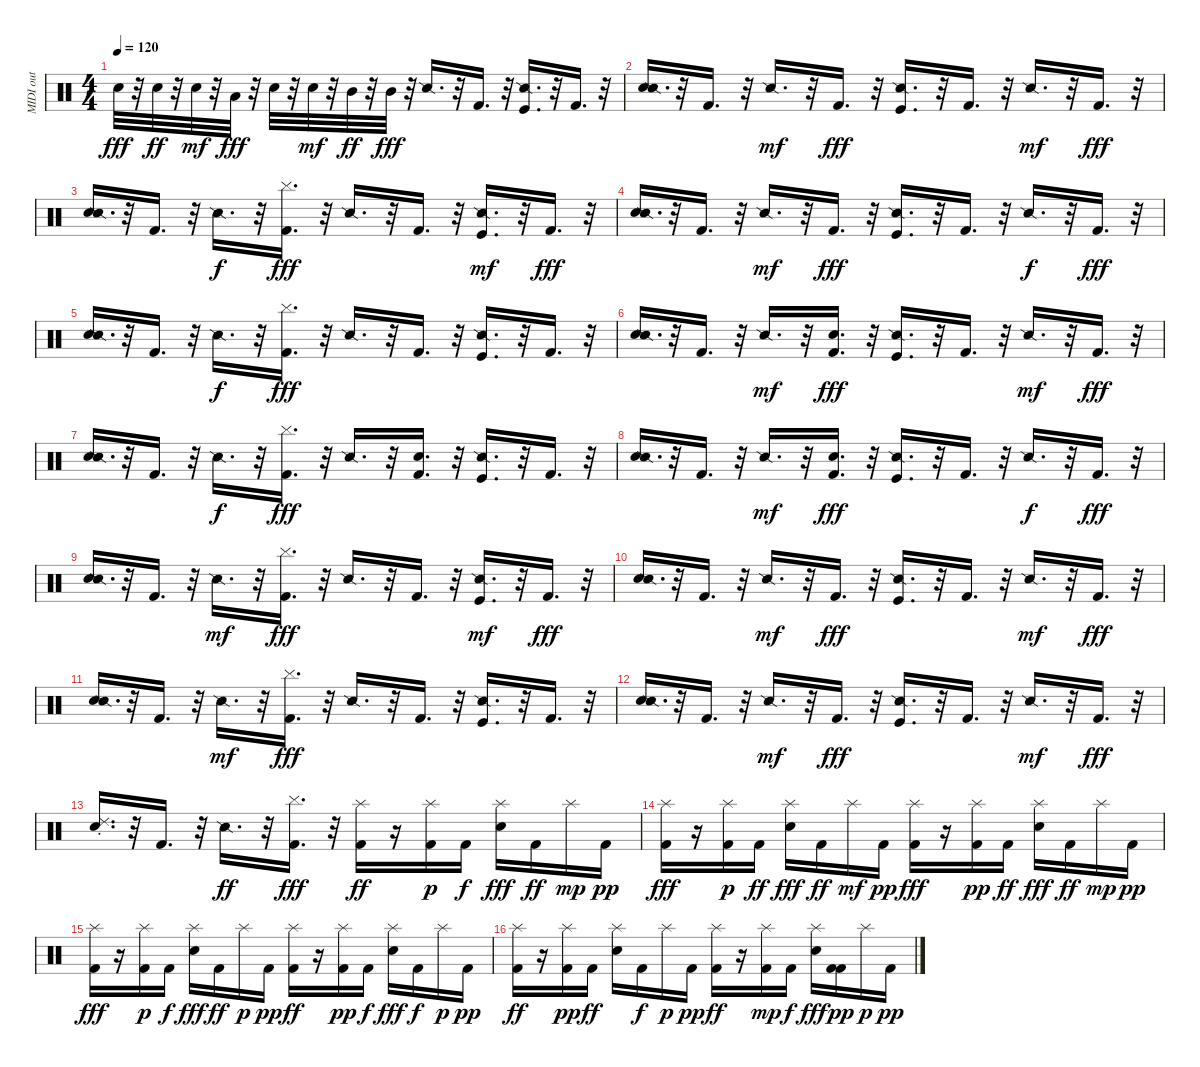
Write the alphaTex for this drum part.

\track ("MIDI out" "MIDI out") {instrument percussion}
\staff {score}
\articulation defaults
\ts (4 4)
\tempo 120
\clef neutral
\ks c "Snare (hit) 2".32{dy fff}
r.32 "Snare (hit) 2".32{dy ff} r.32 "Snare (hit) 2".32{dy mf} r.32 "Low Tom (hit)".32{dy fff} r.32 "Snare (hit) 2".32 r.32 "Snare (hit) 2".32{dy mf} r.32 "Mid Tom (hit)".32{dy ff} r.32 "Mid Tom (hit)".32{dy fff} r.32 "Snare (side stick) 2".16{d} r.32 "Kick (hit) 2".16{d} r.32 ("Kick (hit)" "Snare (side stick) 2").16{d} r.32 "Kick (hit) 2".16{d} r.32 |
("Snare (hit) 2" "Snare (side stick) 2").16{d} r.32 "Kick (hit) 2".16{d} r.32 "Snare (side stick) 2".16{d dy mf} r.32 "Kick (hit) 2".16{d dy fff} r.32 ("Kick (hit)" "Snare (side stick) 2").16{d} r.32 "Kick (hit) 2".16{d} r.32 "Snare (side stick) 2".16{d dy mf} r.32 "Kick (hit) 2".16{d dy fff} r.32 |
("Snare (hit) 2" "Snare (side stick) 2").16{d} r.32 "Kick (hit) 2".16{d} r.32 "Snare (side stick) 2".16{d dy f} r.32 ("Kick (hit) 2" "Cymbal (hit)").16{d dy fff} r.32 "Snare (side stick) 2".16{d} r.32 "Kick (hit) 2".16{d} r.32 ("Kick (hit)" "Snare (side stick) 2").16{d dy mf} r.32 "Kick (hit) 2".16{d dy fff} r.32 |
("Snare (hit) 2" "Snare (side stick) 2").16{d} r.32 "Kick (hit) 2".16{d} r.32 "Snare (side stick) 2".16{d dy mf} r.32 "Kick (hit) 2".16{d dy fff} r.32 ("Kick (hit)" "Snare (side stick) 2").16{d} r.32 "Kick (hit) 2".16{d} r.32 "Snare (side stick) 2".16{d dy f} r.32 "Kick (hit) 2".16{d dy fff} r.32 |
("Snare (hit) 2" "Snare (side stick) 2").16{d} r.32 "Kick (hit) 2".16{d} r.32 "Snare (side stick) 2".16{d dy f} r.32 ("Cymbal (hit)" "Kick (hit) 2").16{d dy fff} r.32 "Snare (side stick) 2".16{d} r.32 "Kick (hit) 2".16{d} r.32 ("Kick (hit)" "Snare (side stick) 2").16{d} r.32 "Kick (hit) 2".16{d} r.32 |
("Snare (hit) 2" "Snare (side stick) 2").16{d} r.32 "Kick (hit) 2".16{d} r.32 "Snare (side stick) 2".16{d dy mf} r.32 ("Snare (hit) 2" "Kick (hit) 2").16{d dy fff} r.32 ("Kick (hit)" "Snare (side stick) 2").16{d} r.32 "Kick (hit) 2".16{d} r.32 "Snare (side stick) 2".16{d dy mf} r.32 "Kick (hit) 2".16{d dy fff} r.32 |
("Snare (hit) 2" "Snare (side stick) 2").16{d} r.32 "Kick (hit) 2".16{d} r.32 "Snare (side stick) 2".16{d dy f} r.32 ("Kick (hit) 2" "Cymbal (hit)").16{d dy fff} r.32 "Snare (side stick) 2".16{d} r.32 ("Snare (hit) 2" "Kick (hit) 2").16{d} r.32 ("Kick (hit)" "Snare (side stick) 2").16{d} r.32 "Kick (hit) 2".16{d} r.32 |
("Snare (hit) 2" "Snare (side stick) 2").16{d} r.32 "Kick (hit) 2".16{d} r.32 "Snare (side stick) 2".16{d dy mf} r.32 ("Snare (hit) 2" "Kick (hit) 2").16{d dy fff} r.32 ("Kick (hit)" "Snare (side stick) 2").16{d} r.32 "Kick (hit) 2".16{d} r.32 "Snare (side stick) 2".16{d dy f} r.32 "Kick (hit) 2".16{d dy fff} r.32 |
("Snare (hit) 2" "Snare (side stick) 2").16{d} r.32 "Kick (hit) 2".16{d} r.32 "Snare (side stick) 2".16{d dy mf} r.32 ("Cymbal (hit)" "Kick (hit) 2").16{d dy fff} r.32 "Snare (side stick) 2".16{d} r.32 "Kick (hit) 2".16{d} r.32 ("Kick (hit)" "Snare (side stick) 2").16{d dy mf} r.32 "Kick (hit) 2".16{d dy fff} r.32 |
("Snare (hit) 2" "Snare (side stick) 2").16{d} r.32 "Kick (hit) 2".16{d} r.32 "Snare (side stick) 2".16{d dy mf} r.32 "Kick (hit) 2".16{d dy fff} r.32 ("Kick (hit)" "Snare (side stick) 2").16{d} r.32 "Kick (hit) 2".16{d} r.32 "Snare (side stick) 2".16{d dy mf} r.32 "Kick (hit) 2".16{d dy fff} r.32 |
("Snare (hit) 2" "Snare (side stick) 2").16{d} r.32 "Kick (hit) 2".16{d} r.32 "Snare (side stick) 2".16{d dy mf} r.32 ("Cymbal (hit)" "Kick (hit) 2").16{d dy fff} r.32 "Snare (side stick) 2".16{d} r.32 "Kick (hit) 2".16{d} r.32 ("Snare (side stick) 2" "Kick (hit)").16{d} r.32 "Kick (hit) 2".16{d} r.32 |
("Snare (hit) 2" "Snare (side stick) 2").16{d} r.32 "Kick (hit) 2".16{d} r.32 "Snare (side stick) 2".16{d dy mf} r.32 "Kick (hit) 2".16{d dy fff} r.32 ("Kick (hit)" "Snare (side stick) 2").16{d} r.32 "Kick (hit) 2".16{d} r.32 "Snare (side stick) 2".16{d dy mf} r.32 "Kick (hit) 2".16{d dy fff} r.32 |
("Snare (hit) 2" "Ride (choke) 2").16{d} r.32 "Kick (hit) 2".16{d} r.32 "Snare (side stick) 2".16{d dy ff} r.32 ("Cymbal (hit)" "Kick (hit) 2").16{d dy fff} r.32 ("Splash (hit)" "Kick (hit) 2").16{dy ff} r.16 ("Kick (hit) 2" "Splash (hit)").16{dy p} "Kick (hit) 2".16{dy f} ("Splash (hit)" "Snare (hit) 2").16{dy fff} "Kick (hit) 2".16{dy ff} "Splash (hit)".16{dy mp} "Kick (hit) 2".16{dy pp} |
("Kick (hit) 2" "Splash (hit)").16{dy fff} r.16 ("Splash (hit)" "Kick (hit) 2").16{dy p} "Kick (hit) 2".16{dy ff} ("Splash (hit)" "Snare (hit) 2").16{dy fff} "Kick (hit) 2".16{dy ff} "Splash (hit)".16{dy mf} "Kick (hit) 2".16{dy pp} ("Kick (hit) 2" "Splash (hit)").16{dy fff} r.16 ("Splash (hit)" "Kick (hit) 2").16{dy pp} "Kick (hit) 2".16{dy ff} ("Snare (hit) 2" "Splash (hit)").16{dy fff} "Kick (hit) 2".16{dy ff} "Splash (hit)".16{dy mp} "Kick (hit) 2".16{dy pp} |
("Kick (hit) 2" "Splash (hit)").16{dy fff} r.16 ("Splash (hit)" "Kick (hit) 2").16{dy p} "Kick (hit) 2".16{dy f} ("Splash (hit)" "Snare (hit) 2").16{dy fff} "Kick (hit) 2".16{dy ff} "Splash (hit)".16{dy p} "Kick (hit) 2".16{dy pp} ("Splash (hit)" "Kick (hit) 2").16{dy ff} r.16 ("Splash (hit)" "Kick (hit) 2").16{dy pp} "Kick (hit) 2".16{dy f} ("Splash (hit)" "Snare (hit) 2").16{dy fff} "Kick (hit) 2".16{dy f} "Splash (hit)".16{dy p} "Kick (hit) 2".16{dy pp} |
("Splash (hit)" "Kick (hit) 2").16{dy ff} r.16 ("Splash (hit)" "Kick (hit) 2").16{dy pp} "Kick (hit) 2".16{dy ff} ("Snare (hit) 2" "Splash (hit)").16 "Kick (hit) 2".16{dy f} "Splash (hit)".16{dy p} "Kick (hit) 2".16{dy pp} ("Splash (hit)" "Kick (hit) 2").16{dy ff} r.16 ("Kick (hit) 2" "Splash (hit)").16{dy mp} "Kick (hit) 2".16{dy f} ("Snare (hit) 2" "Splash (hit)").16{dy fff} ("Kick (hit) 2" "Kick (hit) 2").16{dy pp} "Splash (hit)".16{dy p} "Kick (hit) 2".16{dy pp}
